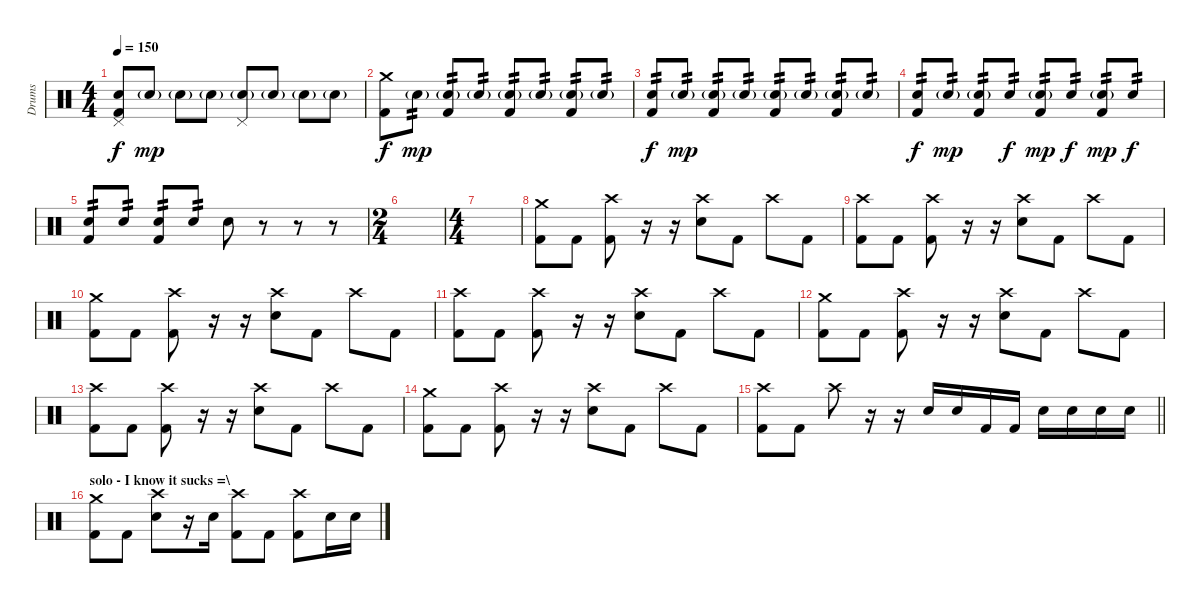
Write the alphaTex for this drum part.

\track ("Drums" "Drums") {instrument percussion}
\staff {score}
\articulation defaults
\ts (4 4)
\tempo 150
\clef neutral
\ks c
("Electric Snare (hit)" "Kick (hit) 2" "Pedal Hi-Hat (hit)").8{dy f} "Electric Snare (hit)"{g}.8{dy mp} "Electric Snare (hit)"{g}.8 "Electric Snare (hit)"{g}.8 ("Electric Snare (hit)"{g} "Pedal Hi-Hat (hit)").8 "Electric Snare (hit)"{g}.8 "Electric Snare (hit)"{g}.8 "Electric Snare (hit)"{g}.8 |
("Crash medium (hit)" "Kick (hit) 2").8{dy f} "Electric Snare (hit)"{g}.8{tp 2 dy mp} ("Electric Snare (hit)"{g} "Kick (hit) 2").8{tp 2} "Electric Snare (hit)"{g}.8{tp 2} ("Electric Snare (hit)"{g} "Kick (hit) 2").8{tp 2} "Electric Snare (hit)"{g}.8{tp 2} ("Electric Snare (hit)"{g} "Kick (hit) 2").8{tp 2} "Electric Snare (hit)"{g}.8{tp 2} |
("Electric Snare (hit)" "Kick (hit) 2").8{tp 2 dy f} "Electric Snare (hit)"{g}.8{tp 2 dy mp} ("Electric Snare (hit)"{g} "Kick (hit) 2").8{tp 2} "Electric Snare (hit)"{g}.8{tp 2} ("Electric Snare (hit)"{g} "Kick (hit) 2").8{tp 2} "Electric Snare (hit)"{g}.8{tp 2} ("Electric Snare (hit)"{g} "Kick (hit) 2").8{tp 2} "Electric Snare (hit)"{g}.8{tp 2} |
("Electric Snare (hit)" "Kick (hit) 2").8{tp 2 dy f} "Electric Snare (hit)"{g}.8{tp 2 dy mp} ("Electric Snare (hit)"{g} "Kick (hit) 2").8{tp 2} "Electric Snare (hit)".8{tp 2 dy f} ("Electric Snare (hit)"{g} "Kick (hit) 2").8{tp 2 dy mp} "Electric Snare (hit)".8{tp 2 dy f} ("Electric Snare (hit)"{g} "Kick (hit) 2").8{tp 2 dy mp} "Electric Snare (hit)".8{tp 2 dy f} |
("Electric Snare (hit)" "Kick (hit) 2").8{tp 2} "Electric Snare (hit)".8{tp 2} ("Electric Snare (hit)" "Kick (hit) 2").8{tp 2} "Electric Snare (hit)".8{tp 2} "Electric Snare (hit)".8 r.8 r.8 r.8 |
\ts (2 4)
|
\ts (4 4)
|
("Kick (hit) 2" "Crash medium (hit)").8 "Kick (hit) 2".8 ("Kick (hit) 2" "Crash high (hit)").8 r.16 r.16 ("Electric Snare (hit)" "Crash high (hit)").8 "Kick (hit) 2".8 "Crash high (hit)".8 "Kick (hit) 2".8 |
("Kick (hit) 2" "Crash high (hit)").8 "Kick (hit) 2".8 ("Kick (hit) 2" "Crash high (hit)").8 r.16 r.16 ("Electric Snare (hit)" "Crash high (hit)").8 "Kick (hit) 2".8 "Crash high (hit)".8 "Kick (hit) 2".8 |
("Kick (hit) 2" "Crash medium (hit)").8 "Kick (hit) 2".8 ("Kick (hit) 2" "Crash high (hit)").8 r.16 r.16 ("Electric Snare (hit)" "Crash high (hit)").8 "Kick (hit) 2".8 "Crash high (hit)".8 "Kick (hit) 2".8 |
("Kick (hit) 2" "Crash high (hit)").8 "Kick (hit) 2".8 ("Kick (hit) 2" "Crash high (hit)").8 r.16 r.16 ("Electric Snare (hit)" "Crash high (hit)").8 "Kick (hit) 2".8 "Crash high (hit)".8 "Kick (hit) 2".8 |
("Kick (hit) 2" "Crash medium (hit)").8 "Kick (hit) 2".8 ("Kick (hit) 2" "Crash high (hit)").8 r.16 r.16 ("Electric Snare (hit)" "Crash high (hit)").8 "Kick (hit) 2".8 "Crash high (hit)".8 "Kick (hit) 2".8 |
("Kick (hit) 2" "Crash high (hit)").8 "Kick (hit) 2".8 ("Kick (hit) 2" "Crash high (hit)").8 r.16 r.16 ("Electric Snare (hit)" "Crash high (hit)").8 "Kick (hit) 2".8 "Crash high (hit)".8 "Kick (hit) 2".8 |
("Kick (hit) 2" "Crash medium (hit)").8 "Kick (hit) 2".8 ("Kick (hit) 2" "Crash high (hit)").8 r.16 r.16 ("Electric Snare (hit)" "Crash high (hit)").8 "Kick (hit) 2".8 "Crash high (hit)".8 "Kick (hit) 2".8 |
\barLineRight lightlight
("Kick (hit) 2" "Crash high (hit)").8 "Kick (hit) 2".8 "Crash high (hit)".8 r.16 r.16 "Electric Snare (hit)".16 "Electric Snare (hit)".16 "Kick (hit) 2".16 "Kick (hit) 2".16 "Electric Snare (hit)".16 "Electric Snare (hit)".16 "Electric Snare (hit)".16 "Electric Snare (hit)".16 |
\section ("" "solo - I know it sucks =\\")
("Kick (hit) 2" "Crash medium (hit)").8 "Kick (hit) 2".8 ("Electric Snare (hit)" "Crash high (hit)").8 r.16 "Electric Snare (hit)".16 ("Kick (hit) 2" "Crash high (hit)").8 "Kick (hit) 2".8 ("Kick (hit) 2" "Crash high (hit)").8 "Electric Snare (hit)".16 "Electric Snare (hit)".16
